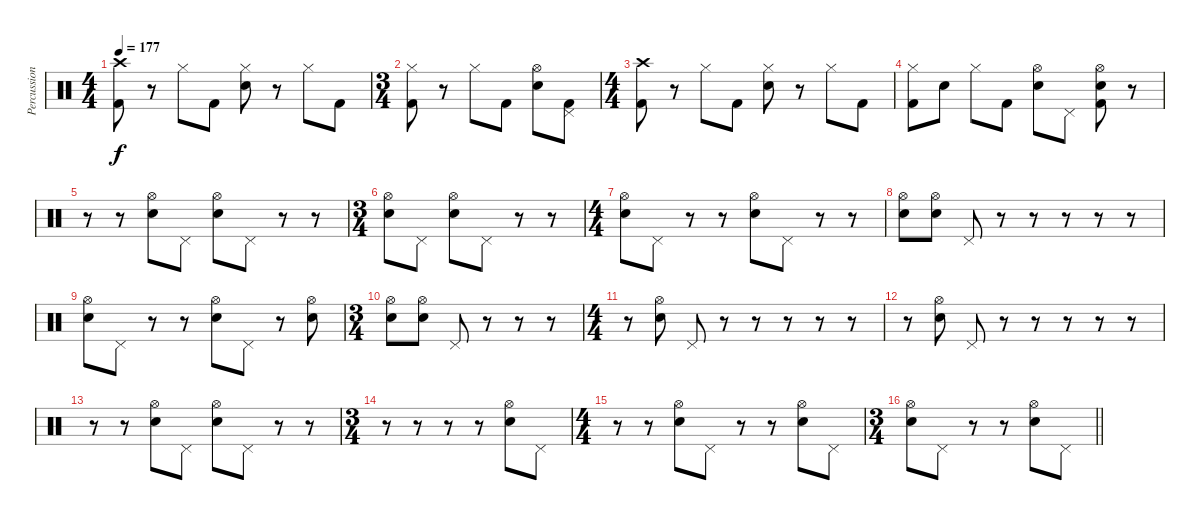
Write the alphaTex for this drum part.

\track ("Percussion" "Percussion") {instrument percussion}
\staff {score}
\articulation defaults
\ts (4 4)
\tempo 177
\clef neutral
\ks c
("Crash high (hit)" "Kick (hit) 2").8{dy f} r.8 "Hi-Hat (closed)".8 "Kick (hit) 2".8 ("Hi-Hat (closed)" "Electric Snare (hit)").8 r.8 "Hi-Hat (closed)".8 "Kick (hit) 2".8 |
\ts (3 4)
("Hi-Hat (closed)" "Kick (hit) 2").8 r.8 "Hi-Hat (closed)".8 "Kick (hit) 2".8 ("Hi-Hat (open)" "Electric Snare (hit)").8 ("Pedal Hi-Hat (hit)" "Kick (hit) 2").8 |
\ts (4 4)
("Crash high (hit)" "Kick (hit) 2").8 r.8 "Hi-Hat (closed)".8 "Kick (hit) 2".8 ("Hi-Hat (closed)" "Electric Snare (hit)").8 r.8 "Hi-Hat (closed)".8 "Kick (hit) 2".8 |
("Hi-Hat (closed)" "Kick (hit) 2").8 "Electric Snare (hit)".8 "Hi-Hat (closed)".8 "Kick (hit) 2".8 ("Hi-Hat (open)" "Electric Snare (hit)").8 "Pedal Hi-Hat (hit)".8 ("Hi-Hat (open)" "Electric Snare (hit)" "Kick (hit) 2").8 r.8 |
r.8 r.8 ("Hi-Hat (open)" "Electric Snare (hit)").8 "Pedal Hi-Hat (hit)".8 ("Hi-Hat (open)" "Electric Snare (hit)").8 "Pedal Hi-Hat (hit)".8 r.8 r.8 |
\ts (3 4)
("Hi-Hat (open)" "Electric Snare (hit)").8 "Pedal Hi-Hat (hit)".8 ("Hi-Hat (open)" "Electric Snare (hit)").8 "Pedal Hi-Hat (hit)".8 r.8 r.8 |
\ts (4 4)
("Hi-Hat (open)" "Electric Snare (hit)").8 "Pedal Hi-Hat (hit)".8 r.8 r.8 ("Hi-Hat (open)" "Electric Snare (hit)").8 "Pedal Hi-Hat (hit)".8 r.8 r.8 |
("Hi-Hat (open)" "Electric Snare (hit)").8 ("Hi-Hat (open)" "Electric Snare (hit)").8 "Pedal Hi-Hat (hit)".8 r.8 r.8 r.8 r.8 r.8 |
("Hi-Hat (open)" "Electric Snare (hit)").8 "Pedal Hi-Hat (hit)".8 r.8 r.8 ("Hi-Hat (open)" "Electric Snare (hit)").8 "Pedal Hi-Hat (hit)".8 r.8 ("Hi-Hat (open)" "Electric Snare (hit)").8 |
\ts (3 4)
("Hi-Hat (open)" "Electric Snare (hit)").8 ("Hi-Hat (open)" "Electric Snare (hit)").8 "Pedal Hi-Hat (hit)".8 r.8 r.8 r.8 |
\ts (4 4)
r.8 ("Hi-Hat (open)" "Electric Snare (hit)").8 "Pedal Hi-Hat (hit)".8 r.8 r.8 r.8 r.8 r.8 |
r.8 ("Hi-Hat (open)" "Electric Snare (hit)").8 "Pedal Hi-Hat (hit)".8 r.8 r.8 r.8 r.8 r.8 |
r.8 r.8 ("Hi-Hat (open)" "Electric Snare (hit)").8 "Pedal Hi-Hat (hit)".8 ("Hi-Hat (open)" "Electric Snare (hit)").8 "Pedal Hi-Hat (hit)".8 r.8 r.8 |
\ts (3 4)
r.8 r.8 r.8 r.8 ("Hi-Hat (open)" "Electric Snare (hit)").8 "Pedal Hi-Hat (hit)".8 |
\ts (4 4)
r.8 r.8 ("Hi-Hat (open)" "Electric Snare (hit)").8 "Pedal Hi-Hat (hit)".8 r.8 r.8 ("Hi-Hat (open)" "Electric Snare (hit)").8 "Pedal Hi-Hat (hit)".8 |
\ts (3 4)
\barLineRight lightlight
("Hi-Hat (open)" "Electric Snare (hit)").8 "Pedal Hi-Hat (hit)".8 r.8 r.8 ("Hi-Hat (open)" "Electric Snare (hit)").8 "Pedal Hi-Hat (hit)".8
